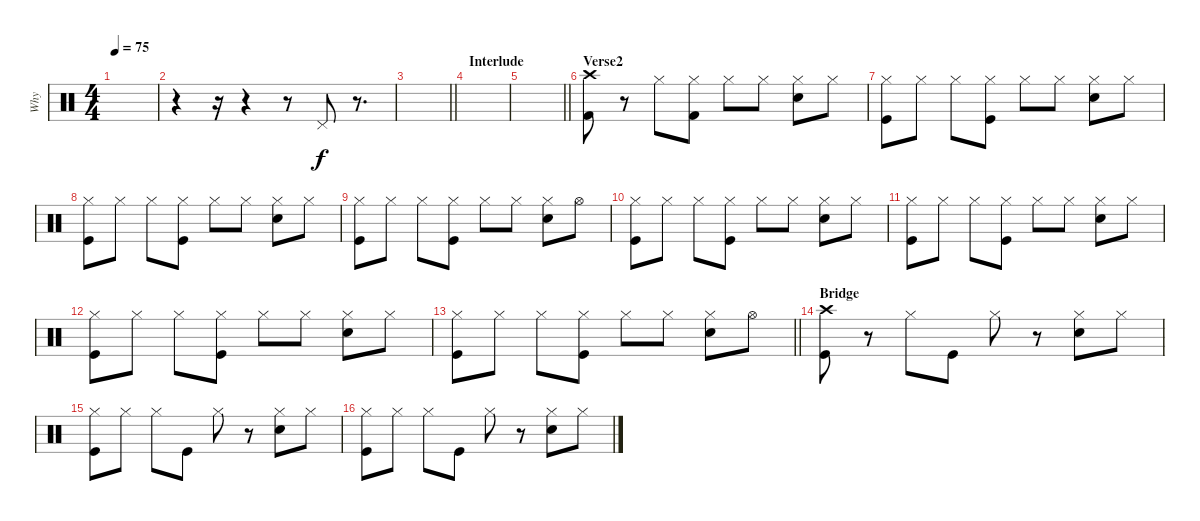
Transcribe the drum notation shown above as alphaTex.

\track ("Why" "Why") {instrument percussion}
\staff {score}
\articulation defaults
\ts (4 4)
\tempo 75
\clef neutral
\ks c
|
r.4 r.16 r.4 r.8 "Pedal Hi-Hat (hit)".8 r.8{d} |
\barLineRight lightlight
|
\section ("" "Interlude")
|
\barLineRight lightlight
|
\section ("" "Verse2")
("Crash high (hit)" "Kick (hit) 2").8 r.8 "Hi-Hat (closed)".8 ("Hi-Hat (closed)" "Kick (hit) 2").8 "Hi-Hat (closed)".8 "Hi-Hat (closed)".8 ("Hi-Hat (closed)" "Snare (hit) 2").8 "Hi-Hat (closed)".8 |
("Hi-Hat (closed)" "Kick (hit)").8 "Hi-Hat (closed)".8 "Hi-Hat (closed)".8 ("Hi-Hat (closed)" "Kick (hit)").8 "Hi-Hat (closed)".8 "Hi-Hat (closed)".8 ("Hi-Hat (closed)" "Snare (hit) 2").8 "Hi-Hat (closed)".8 |
("Hi-Hat (closed)" "Kick (hit)").8 "Hi-Hat (closed)".8 "Hi-Hat (closed)".8 ("Hi-Hat (closed)" "Kick (hit)").8 "Hi-Hat (closed)".8 "Hi-Hat (closed)".8 ("Hi-Hat (closed)" "Snare (hit) 2").8 "Hi-Hat (closed)".8 |
("Hi-Hat (closed)" "Kick (hit)").8 "Hi-Hat (closed)".8 "Hi-Hat (closed)".8 ("Hi-Hat (closed)" "Kick (hit)").8 "Hi-Hat (closed)".8 "Hi-Hat (closed)".8 ("Hi-Hat (closed)" "Snare (hit) 2").8 "Hi-Hat (open)".8 |
("Hi-Hat (closed)" "Kick (hit)").8 "Hi-Hat (closed)".8 "Hi-Hat (closed)".8 ("Hi-Hat (closed)" "Kick (hit)").8 "Hi-Hat (closed)".8 "Hi-Hat (closed)".8 ("Hi-Hat (closed)" "Snare (hit) 2").8 "Hi-Hat (closed)".8 |
("Hi-Hat (closed)" "Kick (hit)").8 "Hi-Hat (closed)".8 "Hi-Hat (closed)".8 ("Hi-Hat (closed)" "Kick (hit)").8 "Hi-Hat (closed)".8 "Hi-Hat (closed)".8 ("Hi-Hat (closed)" "Snare (hit) 2").8 "Hi-Hat (closed)".8 |
("Hi-Hat (closed)" "Kick (hit)").8 "Hi-Hat (closed)".8 "Hi-Hat (closed)".8 ("Hi-Hat (closed)" "Kick (hit)").8 "Hi-Hat (closed)".8 "Hi-Hat (closed)".8 ("Hi-Hat (closed)" "Snare (hit) 2").8 "Hi-Hat (closed)".8 |
\barLineRight lightlight
("Hi-Hat (closed)" "Kick (hit)").8 "Hi-Hat (closed)".8 "Hi-Hat (closed)".8 ("Hi-Hat (closed)" "Kick (hit)").8 "Hi-Hat (closed)".8 "Hi-Hat (closed)".8 ("Hi-Hat (closed)" "Snare (hit) 2").8 "Hi-Hat (open)".8 |
\section ("" "Bridge")
("Crash high (hit)" "Kick (hit)").8 r.8 "Hi-Hat (closed)".8 "Kick (hit)".8 "Hi-Hat (closed)".8 r.8 ("Hi-Hat (closed)" "Snare (hit) 2").8 "Hi-Hat (closed)".8 |
("Hi-Hat (closed)" "Kick (hit)").8 "Hi-Hat (closed)".8 "Hi-Hat (closed)".8 "Kick (hit)".8 "Hi-Hat (closed)".8 r.8 ("Hi-Hat (closed)" "Snare (hit) 2").8 "Hi-Hat (closed)".8 |
("Hi-Hat (closed)" "Kick (hit)").8 "Hi-Hat (closed)".8 "Hi-Hat (closed)".8 "Kick (hit)".8 "Hi-Hat (closed)".8 r.8 ("Hi-Hat (closed)" "Snare (hit) 2").8 "Hi-Hat (closed)".8
